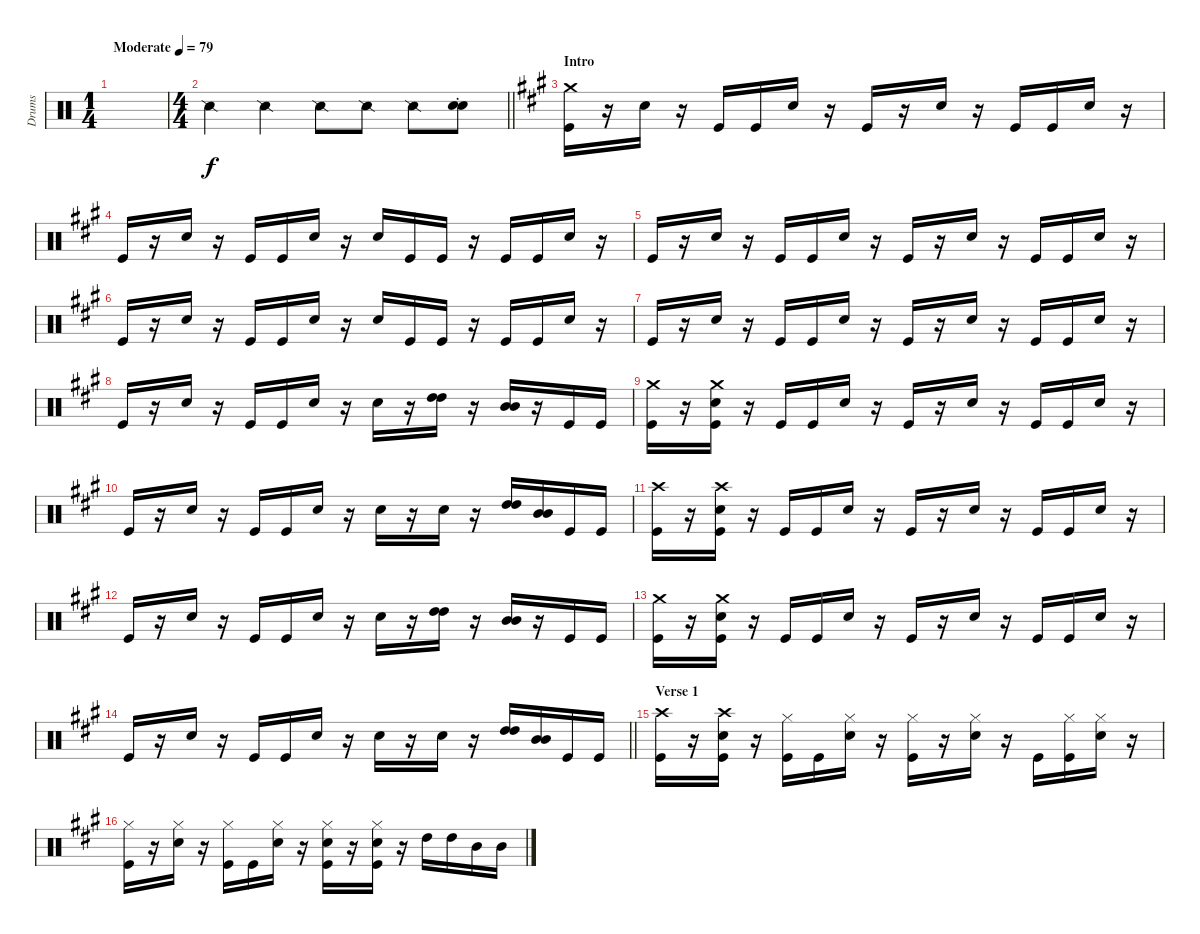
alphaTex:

\track ("Drums" "Drums") {instrument percussion}
\staff {score}
\articulation defaults
\ts (1 4)
\tempo (79 "Moderate")
\clef neutral
\ks c
|
\ts (4 4)
\barLineRight lightlight "Snare (side stick) 2".4 "Snare (side stick) 2".4 "Snare (side stick) 2".8 "Snare (side stick) 2".8 "Snare (side stick) 2".8
("Snare (hit) 2"{st} "Snare (hit) 2").8 |
\section ("" "Intro")
\ks a
("Crash medium (hit)" "Kick (hit)").16 r.16 "Snare (hit) 2".16 r.16 "Kick (hit)".16 "Kick (hit)".16 "Snare (hit) 2".16 r.16 "Kick (hit)".16 r.16 "Snare (hit) 2".16 r.16 "Kick (hit)".16 "Kick (hit)".16 "Snare (hit) 2".16 r.16 |
"Kick (hit)".16 r.16 "Snare (hit) 2".16 r.16 "Kick (hit)".16 "Kick (hit)".16 "Snare (hit) 2".16 r.16 "Snare (hit) 2".16 "Kick (hit)".16 "Kick (hit)".16 r.16 "Kick (hit)".16 "Kick (hit)".16 "Snare (hit) 2".16 r.16 |
"Kick (hit)".16 r.16 "Snare (hit) 2".16 r.16 "Kick (hit)".16 "Kick (hit)".16 "Snare (hit) 2".16 r.16 "Kick (hit)".16 r.16 "Snare (hit) 2".16 r.16 "Kick (hit)".16 "Kick (hit)".16 "Snare (hit) 2".16 r.16 |
"Kick (hit)".16 r.16 "Snare (hit) 2".16 r.16 "Kick (hit)".16 "Kick (hit)".16 "Snare (hit) 2".16 r.16 "Snare (hit) 2".16 "Kick (hit)".16 "Kick (hit)".16 r.16 "Kick (hit)".16 "Kick (hit)".16 "Snare (hit) 2".16 r.16 |
"Kick (hit)".16 r.16 "Snare (hit) 2".16 r.16 "Kick (hit)".16 "Kick (hit)".16 "Snare (hit) 2".16 r.16 "Kick (hit)".16 r.16 "Snare (hit) 2".16 r.16 "Kick (hit)".16 "Kick (hit)".16 "Snare (hit) 2".16 r.16 |
"Kick (hit)".16 r.16 "Snare (hit) 2".16 r.16 "Kick (hit)".16 "Kick (hit)".16 "Snare (hit) 2".16 r.16 "Snare (hit) 2".16 r.16 ("High Tom (hit)" "High Tom (hit)").16 r.16 ("Mid Tom (hit)" "Mid Tom (hit)").16 r.16 "Kick (hit)".16 "Kick (hit)".16 |
("Crash medium (hit)" "Kick (hit)").16 r.16 ("Crash medium (hit)" "Snare (hit) 2" "Kick (hit)").16 r.16 "Kick (hit)".16 "Kick (hit)".16 "Snare (hit) 2".16 r.16 "Kick (hit)".16 r.16 "Snare (hit) 2".16 r.16 "Kick (hit)".16 "Kick (hit)".16 "Snare (hit) 2".16 r.16 |
"Kick (hit)".16 r.16 "Snare (hit) 2".16 r.16 "Kick (hit)".16 "Kick (hit)".16 "Snare (hit) 2".16 r.16 "Snare (hit) 2".16 r.16 "Snare (hit) 2".16 r.16 ("High Tom (hit)" "High Tom (hit)").16 ("Mid Tom (hit)" "Mid Tom (hit)").16 "Kick (hit)".16 "Kick (hit)".16 |
("Crash high (hit)" "Kick (hit)").16 r.16 ("Crash high (hit)" "Snare (hit) 2" "Kick (hit)").16 r.16 "Kick (hit)".16 "Kick (hit)".16 "Snare (hit) 2".16 r.16 "Kick (hit)".16 r.16 "Snare (hit) 2".16 r.16 "Kick (hit)".16 "Kick (hit)".16 "Snare (hit) 2".16 r.16 |
"Kick (hit)".16 r.16 "Snare (hit) 2".16 r.16 "Kick (hit)".16 "Kick (hit)".16 "Snare (hit) 2".16 r.16 "Snare (hit) 2".16 r.16 ("High Tom (hit)" "High Tom (hit)").16 r.16 ("Mid Tom (hit)" "Mid Tom (hit)").16 r.16 "Kick (hit)".16 "Kick (hit)".16 |
("Crash medium (hit)" "Kick (hit)").16 r.16 ("Crash medium (hit)" "Snare (hit) 2" "Kick (hit)").16 r.16 "Kick (hit)".16 "Kick (hit)".16 "Snare (hit) 2".16 r.16 "Kick (hit)".16 r.16 "Snare (hit) 2".16 r.16 "Kick (hit)".16 "Kick (hit)".16 "Snare (hit) 2".16 r.16 |
\barLineRight lightlight "Kick (hit)".16
r.16 "Snare (hit) 2".16 r.16 "Kick (hit)".16 "Kick (hit)".16 "Snare (hit) 2".16 r.16 "Snare (hit) 2".16 r.16 "Snare (hit) 2".16 r.16 ("High Tom (hit)" "High Tom (hit)").16 ("Mid Tom (hit)" "Mid Tom (hit)").16 "Kick (hit)".16 "Kick (hit)".16 |
\section ("" "Verse 1")
("Crash high (hit)" "Kick (hit)").16 r.16 ("Crash high (hit)" "Snare (hit) 2" "Kick (hit)").16 r.16 ("Hi-Hat (closed)" "Kick (hit)").16 "Kick (hit)".16 ("Hi-Hat (closed)" "Snare (hit) 2").16 r.16 ("Hi-Hat (closed)" "Kick (hit)").16 r.16 ("Hi-Hat (closed)" "Snare (hit) 2").16 r.16 "Kick (hit)".16 ("Hi-Hat (closed)" "Kick (hit)").16 ("Hi-Hat (closed)" "Snare (hit) 2").16 r.16 |
("Hi-Hat (closed)" "Kick (hit)").16 r.16 ("Hi-Hat (closed)" "Snare (hit) 2").16 r.16 ("Hi-Hat (closed)" "Kick (hit)").16 "Kick (hit)".16 ("Hi-Hat (closed)" "Snare (hit) 2").16 r.16 ("Hi-Hat (closed)" "Snare (hit) 2" "Kick (hit)").16 r.16 ("Hi-Hat (closed)" "Snare (hit) 2" "Kick (hit)").16 r.16 "High Tom (hit)".16 "High Tom (hit)".16 "Mid Tom (hit)".16 "Mid Tom (hit)".16
